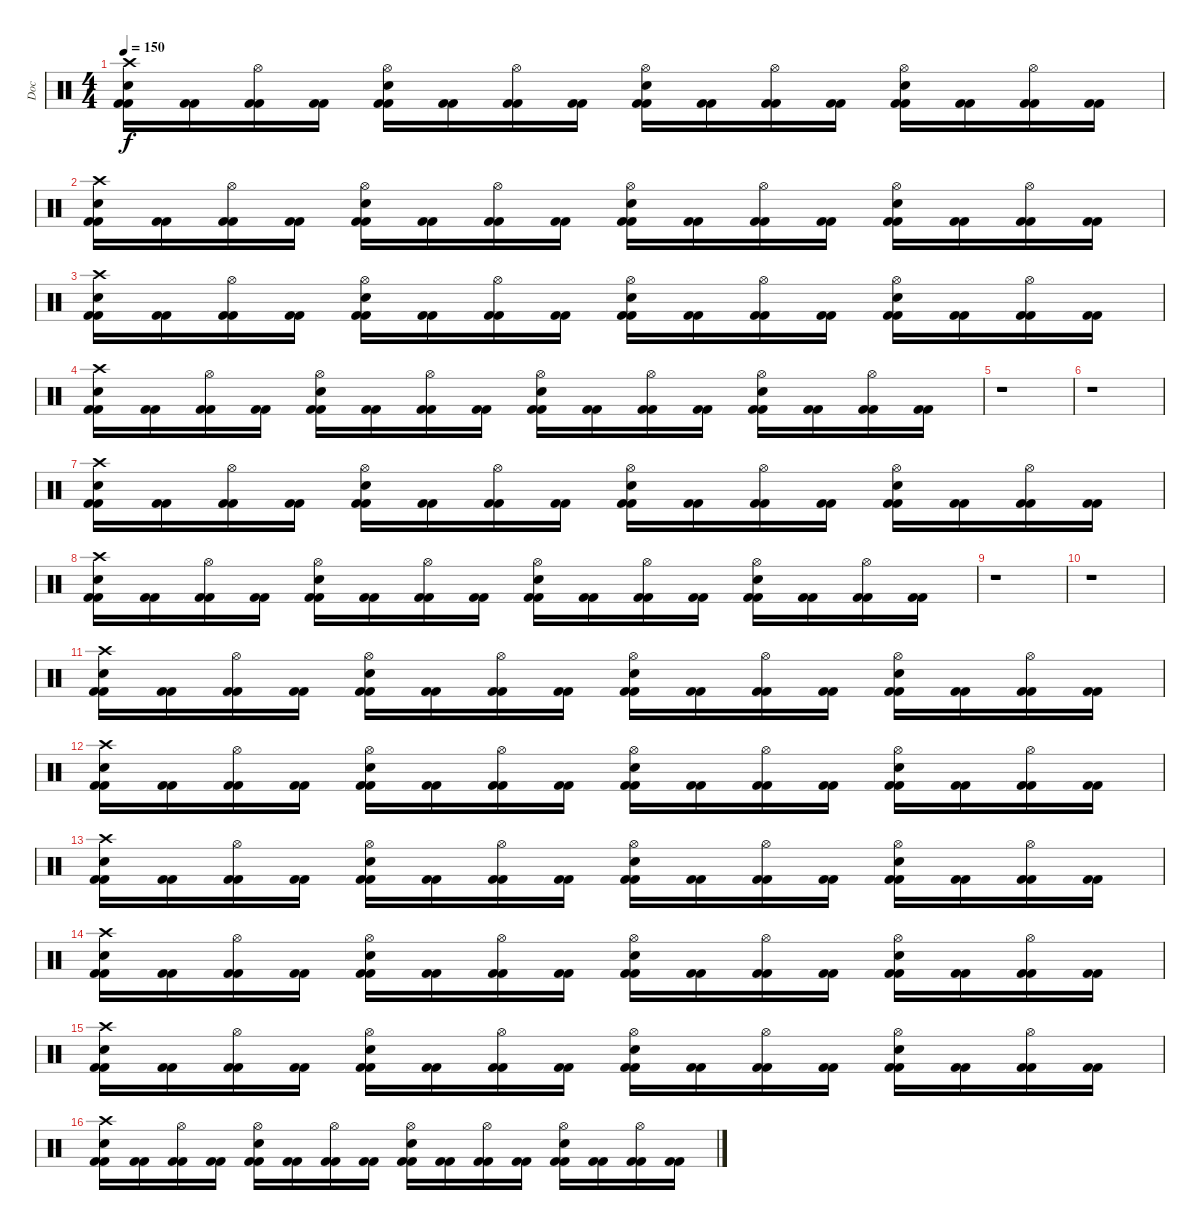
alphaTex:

\track ("Doc" "Doc") {instrument percussion}
\staff {score}
\articulation defaults
\ts (4 4)
\tempo 150
\clef neutral
\ks c
("Kick (hit) 2" "Crash high (hit)" "Electric Snare (hit)" "Kick (hit) 2").16{dy f} ("Kick (hit) 2" "Kick (hit) 2").16 ("Kick (hit) 2" "Hi-Hat (open)" "Kick (hit) 2").16 ("Kick (hit) 2" "Kick (hit) 2").16 ("Kick (hit) 2" "Hi-Hat (open)" "Electric Snare (hit)" "Kick (hit) 2").16 ("Kick (hit) 2" "Kick (hit) 2").16 ("Kick (hit) 2" "Hi-Hat (open)" "Kick (hit) 2").16 ("Kick (hit) 2" "Kick (hit) 2").16 ("Kick (hit) 2" "Hi-Hat (open)" "Electric Snare (hit)" "Kick (hit) 2").16 ("Kick (hit) 2" "Kick (hit) 2").16 ("Kick (hit) 2" "Hi-Hat (open)" "Kick (hit) 2").16 ("Kick (hit) 2" "Kick (hit) 2").16 ("Kick (hit) 2" "Hi-Hat (open)" "Electric Snare (hit)" "Kick (hit) 2").16 ("Kick (hit) 2" "Kick (hit) 2").16 ("Kick (hit) 2" "Hi-Hat (open)" "Kick (hit) 2").16 ("Kick (hit) 2" "Kick (hit) 2").16 |
("Kick (hit) 2" "Crash high (hit)" "Electric Snare (hit)" "Kick (hit) 2").16 ("Kick (hit) 2" "Kick (hit) 2").16 ("Kick (hit) 2" "Hi-Hat (open)" "Kick (hit) 2").16 ("Kick (hit) 2" "Kick (hit) 2").16 ("Kick (hit) 2" "Hi-Hat (open)" "Electric Snare (hit)" "Kick (hit) 2").16 ("Kick (hit) 2" "Kick (hit) 2").16 ("Kick (hit) 2" "Hi-Hat (open)" "Kick (hit) 2").16 ("Kick (hit) 2" "Kick (hit) 2").16 ("Kick (hit) 2" "Hi-Hat (open)" "Electric Snare (hit)" "Kick (hit) 2").16 ("Kick (hit) 2" "Kick (hit) 2").16 ("Kick (hit) 2" "Hi-Hat (open)" "Kick (hit) 2").16 ("Kick (hit) 2" "Kick (hit) 2").16 ("Kick (hit) 2" "Hi-Hat (open)" "Electric Snare (hit)" "Kick (hit) 2").16 ("Kick (hit) 2" "Kick (hit) 2").16 ("Kick (hit) 2" "Hi-Hat (open)" "Kick (hit) 2").16 ("Kick (hit) 2" "Kick (hit) 2").16 |
("Kick (hit) 2" "Crash high (hit)" "Electric Snare (hit)" "Kick (hit) 2").16 ("Kick (hit) 2" "Kick (hit) 2").16 ("Kick (hit) 2" "Hi-Hat (open)" "Kick (hit) 2").16 ("Kick (hit) 2" "Kick (hit) 2").16 ("Kick (hit) 2" "Hi-Hat (open)" "Electric Snare (hit)" "Kick (hit) 2").16 ("Kick (hit) 2" "Kick (hit) 2").16 ("Kick (hit) 2" "Hi-Hat (open)" "Kick (hit) 2").16 ("Kick (hit) 2" "Kick (hit) 2").16 ("Kick (hit) 2" "Hi-Hat (open)" "Electric Snare (hit)" "Kick (hit) 2").16 ("Kick (hit) 2" "Kick (hit) 2").16 ("Kick (hit) 2" "Hi-Hat (open)" "Kick (hit) 2").16 ("Kick (hit) 2" "Kick (hit) 2").16 ("Kick (hit) 2" "Hi-Hat (open)" "Electric Snare (hit)" "Kick (hit) 2").16 ("Kick (hit) 2" "Kick (hit) 2").16 ("Kick (hit) 2" "Hi-Hat (open)" "Kick (hit) 2").16 ("Kick (hit) 2" "Kick (hit) 2").16 |
("Kick (hit) 2" "Crash high (hit)" "Electric Snare (hit)" "Kick (hit) 2").16 ("Kick (hit) 2" "Kick (hit) 2").16 ("Kick (hit) 2" "Hi-Hat (open)" "Kick (hit) 2").16 ("Kick (hit) 2" "Kick (hit) 2").16 ("Kick (hit) 2" "Hi-Hat (open)" "Electric Snare (hit)" "Kick (hit) 2").16 ("Kick (hit) 2" "Kick (hit) 2").16 ("Kick (hit) 2" "Hi-Hat (open)" "Kick (hit) 2").16 ("Kick (hit) 2" "Kick (hit) 2").16 ("Kick (hit) 2" "Hi-Hat (open)" "Electric Snare (hit)" "Kick (hit) 2").16 ("Kick (hit) 2" "Kick (hit) 2").16 ("Kick (hit) 2" "Hi-Hat (open)" "Kick (hit) 2").16 ("Kick (hit) 2" "Kick (hit) 2").16 ("Kick (hit) 2" "Hi-Hat (open)" "Electric Snare (hit)" "Kick (hit) 2").16 ("Kick (hit) 2" "Kick (hit) 2").16 ("Kick (hit) 2" "Hi-Hat (open)" "Kick (hit) 2").16 ("Kick (hit) 2" "Kick (hit) 2").16 |
r.1 |
r.1 |
("Kick (hit) 2" "Crash high (hit)" "Electric Snare (hit)" "Kick (hit) 2").16 ("Kick (hit) 2" "Kick (hit) 2").16 ("Kick (hit) 2" "Hi-Hat (open)" "Kick (hit) 2").16 ("Kick (hit) 2" "Kick (hit) 2").16 ("Kick (hit) 2" "Hi-Hat (open)" "Electric Snare (hit)" "Kick (hit) 2").16 ("Kick (hit) 2" "Kick (hit) 2").16 ("Kick (hit) 2" "Hi-Hat (open)" "Kick (hit) 2").16 ("Kick (hit) 2" "Kick (hit) 2").16 ("Kick (hit) 2" "Hi-Hat (open)" "Electric Snare (hit)" "Kick (hit) 2").16 ("Kick (hit) 2" "Kick (hit) 2").16 ("Kick (hit) 2" "Hi-Hat (open)" "Kick (hit) 2").16 ("Kick (hit) 2" "Kick (hit) 2").16 ("Kick (hit) 2" "Hi-Hat (open)" "Electric Snare (hit)" "Kick (hit) 2").16 ("Kick (hit) 2" "Kick (hit) 2").16 ("Kick (hit) 2" "Hi-Hat (open)" "Kick (hit) 2").16 ("Kick (hit) 2" "Kick (hit) 2").16 |
("Kick (hit) 2" "Crash high (hit)" "Electric Snare (hit)" "Kick (hit) 2").16 ("Kick (hit) 2" "Kick (hit) 2").16 ("Kick (hit) 2" "Hi-Hat (open)" "Kick (hit) 2").16 ("Kick (hit) 2" "Kick (hit) 2").16 ("Kick (hit) 2" "Hi-Hat (open)" "Electric Snare (hit)" "Kick (hit) 2").16 ("Kick (hit) 2" "Kick (hit) 2").16 ("Kick (hit) 2" "Hi-Hat (open)" "Kick (hit) 2").16 ("Kick (hit) 2" "Kick (hit) 2").16 ("Kick (hit) 2" "Hi-Hat (open)" "Electric Snare (hit)" "Kick (hit) 2").16 ("Kick (hit) 2" "Kick (hit) 2").16 ("Kick (hit) 2" "Hi-Hat (open)" "Kick (hit) 2").16 ("Kick (hit) 2" "Kick (hit) 2").16 ("Kick (hit) 2" "Hi-Hat (open)" "Electric Snare (hit)" "Kick (hit) 2").16 ("Kick (hit) 2" "Kick (hit) 2").16 ("Kick (hit) 2" "Hi-Hat (open)" "Kick (hit) 2").16 ("Kick (hit) 2" "Kick (hit) 2").16 |
r.1 |
r.1 |
("Kick (hit) 2" "Crash high (hit)" "Electric Snare (hit)" "Kick (hit) 2").16 ("Kick (hit) 2" "Kick (hit) 2").16 ("Kick (hit) 2" "Hi-Hat (open)" "Kick (hit) 2").16 ("Kick (hit) 2" "Kick (hit) 2").16 ("Kick (hit) 2" "Hi-Hat (open)" "Electric Snare (hit)" "Kick (hit) 2").16 ("Kick (hit) 2" "Kick (hit) 2").16 ("Kick (hit) 2" "Hi-Hat (open)" "Kick (hit) 2").16 ("Kick (hit) 2" "Kick (hit) 2").16 ("Kick (hit) 2" "Hi-Hat (open)" "Electric Snare (hit)" "Kick (hit) 2").16 ("Kick (hit) 2" "Kick (hit) 2").16 ("Kick (hit) 2" "Hi-Hat (open)" "Kick (hit) 2").16 ("Kick (hit) 2" "Kick (hit) 2").16 ("Kick (hit) 2" "Hi-Hat (open)" "Electric Snare (hit)" "Kick (hit) 2").16 ("Kick (hit) 2" "Kick (hit) 2").16 ("Kick (hit) 2" "Hi-Hat (open)" "Kick (hit) 2").16 ("Kick (hit) 2" "Kick (hit) 2").16 |
("Kick (hit) 2" "Crash high (hit)" "Electric Snare (hit)" "Kick (hit) 2").16 ("Kick (hit) 2" "Kick (hit) 2").16 ("Kick (hit) 2" "Hi-Hat (open)" "Kick (hit) 2").16 ("Kick (hit) 2" "Kick (hit) 2").16 ("Kick (hit) 2" "Hi-Hat (open)" "Electric Snare (hit)" "Kick (hit) 2").16 ("Kick (hit) 2" "Kick (hit) 2").16 ("Kick (hit) 2" "Hi-Hat (open)" "Kick (hit) 2").16 ("Kick (hit) 2" "Kick (hit) 2").16 ("Kick (hit) 2" "Hi-Hat (open)" "Electric Snare (hit)" "Kick (hit) 2").16 ("Kick (hit) 2" "Kick (hit) 2").16 ("Kick (hit) 2" "Hi-Hat (open)" "Kick (hit) 2").16 ("Kick (hit) 2" "Kick (hit) 2").16 ("Kick (hit) 2" "Hi-Hat (open)" "Electric Snare (hit)" "Kick (hit) 2").16 ("Kick (hit) 2" "Kick (hit) 2").16 ("Kick (hit) 2" "Hi-Hat (open)" "Kick (hit) 2").16 ("Kick (hit) 2" "Kick (hit) 2").16 |
("Kick (hit) 2" "Crash high (hit)" "Electric Snare (hit)" "Kick (hit) 2").16 ("Kick (hit) 2" "Kick (hit) 2").16 ("Kick (hit) 2" "Hi-Hat (open)" "Kick (hit) 2").16 ("Kick (hit) 2" "Kick (hit) 2").16 ("Kick (hit) 2" "Hi-Hat (open)" "Electric Snare (hit)" "Kick (hit) 2").16 ("Kick (hit) 2" "Kick (hit) 2").16 ("Kick (hit) 2" "Hi-Hat (open)" "Kick (hit) 2").16 ("Kick (hit) 2" "Kick (hit) 2").16 ("Kick (hit) 2" "Hi-Hat (open)" "Electric Snare (hit)" "Kick (hit) 2").16 ("Kick (hit) 2" "Kick (hit) 2").16 ("Kick (hit) 2" "Hi-Hat (open)" "Kick (hit) 2").16 ("Kick (hit) 2" "Kick (hit) 2").16 ("Kick (hit) 2" "Hi-Hat (open)" "Electric Snare (hit)" "Kick (hit) 2").16 ("Kick (hit) 2" "Kick (hit) 2").16 ("Kick (hit) 2" "Hi-Hat (open)" "Kick (hit) 2").16 ("Kick (hit) 2" "Kick (hit) 2").16 |
("Kick (hit) 2" "Crash high (hit)" "Electric Snare (hit)" "Kick (hit) 2").16 ("Kick (hit) 2" "Kick (hit) 2").16 ("Kick (hit) 2" "Hi-Hat (open)" "Kick (hit) 2").16 ("Kick (hit) 2" "Kick (hit) 2").16 ("Kick (hit) 2" "Hi-Hat (open)" "Electric Snare (hit)" "Kick (hit) 2").16 ("Kick (hit) 2" "Kick (hit) 2").16 ("Kick (hit) 2" "Hi-Hat (open)" "Kick (hit) 2").16 ("Kick (hit) 2" "Kick (hit) 2").16 ("Kick (hit) 2" "Hi-Hat (open)" "Electric Snare (hit)" "Kick (hit) 2").16 ("Kick (hit) 2" "Kick (hit) 2").16 ("Kick (hit) 2" "Hi-Hat (open)" "Kick (hit) 2").16 ("Kick (hit) 2" "Kick (hit) 2").16 ("Kick (hit) 2" "Hi-Hat (open)" "Electric Snare (hit)" "Kick (hit) 2").16 ("Kick (hit) 2" "Kick (hit) 2").16 ("Kick (hit) 2" "Hi-Hat (open)" "Kick (hit) 2").16 ("Kick (hit) 2" "Kick (hit) 2").16 |
("Kick (hit) 2" "Crash high (hit)" "Electric Snare (hit)" "Kick (hit) 2").16 ("Kick (hit) 2" "Kick (hit) 2").16 ("Kick (hit) 2" "Hi-Hat (open)" "Kick (hit) 2").16 ("Kick (hit) 2" "Kick (hit) 2").16 ("Kick (hit) 2" "Hi-Hat (open)" "Electric Snare (hit)" "Kick (hit) 2").16 ("Kick (hit) 2" "Kick (hit) 2").16 ("Kick (hit) 2" "Hi-Hat (open)" "Kick (hit) 2").16 ("Kick (hit) 2" "Kick (hit) 2").16 ("Kick (hit) 2" "Hi-Hat (open)" "Electric Snare (hit)" "Kick (hit) 2").16 ("Kick (hit) 2" "Kick (hit) 2").16 ("Kick (hit) 2" "Hi-Hat (open)" "Kick (hit) 2").16 ("Kick (hit) 2" "Kick (hit) 2").16 ("Kick (hit) 2" "Hi-Hat (open)" "Electric Snare (hit)" "Kick (hit) 2").16 ("Kick (hit) 2" "Kick (hit) 2").16 ("Kick (hit) 2" "Hi-Hat (open)" "Kick (hit) 2").16 ("Kick (hit) 2" "Kick (hit) 2").16 |
("Kick (hit) 2" "Crash high (hit)" "Electric Snare (hit)" "Kick (hit) 2").16 ("Kick (hit) 2" "Kick (hit) 2").16 ("Kick (hit) 2" "Hi-Hat (open)" "Kick (hit) 2").16 ("Kick (hit) 2" "Kick (hit) 2").16 ("Kick (hit) 2" "Hi-Hat (open)" "Electric Snare (hit)" "Kick (hit) 2").16 ("Kick (hit) 2" "Kick (hit) 2").16 ("Kick (hit) 2" "Hi-Hat (open)" "Kick (hit) 2").16 ("Kick (hit) 2" "Kick (hit) 2").16 ("Kick (hit) 2" "Hi-Hat (open)" "Electric Snare (hit)" "Kick (hit) 2").16 ("Kick (hit) 2" "Kick (hit) 2").16 ("Kick (hit) 2" "Hi-Hat (open)" "Kick (hit) 2").16 ("Kick (hit) 2" "Kick (hit) 2").16 ("Kick (hit) 2" "Hi-Hat (open)" "Electric Snare (hit)" "Kick (hit) 2").16 ("Kick (hit) 2" "Kick (hit) 2").16 ("Kick (hit) 2" "Hi-Hat (open)" "Kick (hit) 2").16 ("Kick (hit) 2" "Kick (hit) 2").16
